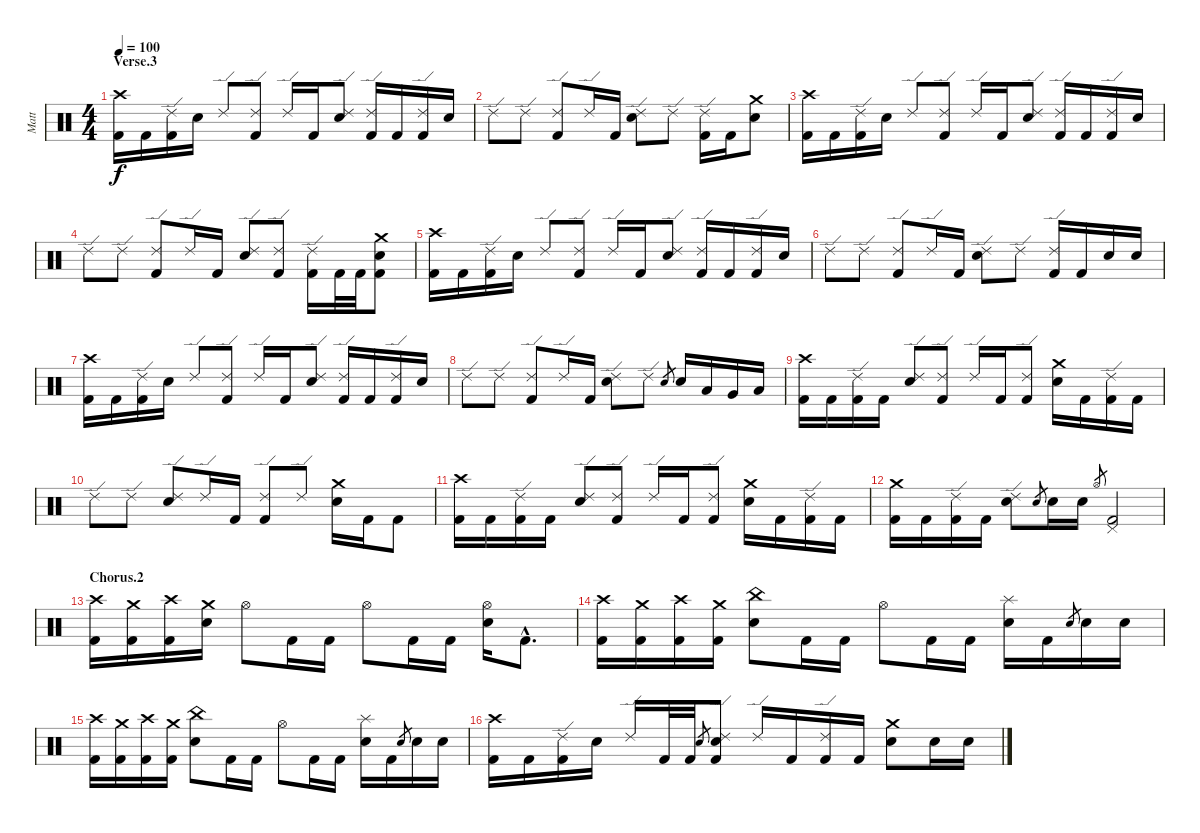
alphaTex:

\track ("Matt" "Matt") {instrument percussion}
\staff {score}
\articulation defaults
\ts (4 4)
\section ("" "Verse.3")
\tempo 100
\clef neutral
\ks c
("Crash high (hit)" "Kick (hit) 2").16{dy f} "Kick (hit) 2".16 ("Ride (edge) 2" "Kick (hit) 2").16 "Electric Snare (hit)".16 "Ride (edge) 2".8 ("Ride (edge) 2" "Kick (hit) 2").8 "Ride (edge) 2".16 "Kick (hit) 2".16 ("Ride (edge) 2" "Electric Snare (hit)").8 ("Ride (edge) 2" "Kick (hit) 2").16 "Kick (hit) 2".16 ("Ride (edge) 2" "Kick (hit) 2").16 "Electric Snare (hit)".16 |
"Ride (edge) 2".8 "Ride (edge) 2".8 ("Ride (edge) 2" "Kick (hit) 2").8 "Ride (edge) 2".16 "Kick (hit) 2".16 ("Ride (edge) 2" "Electric Snare (hit)").8 "Ride (edge) 2".8 ("Ride (edge) 2" "Kick (hit) 2").16 "Kick (hit) 2".16 ("Crash medium (hit)" "Electric Snare (hit)").8 |
("Crash high (hit)" "Kick (hit) 2").16 "Kick (hit) 2".16 ("Ride (edge) 2" "Kick (hit) 2").16 "Electric Snare (hit)".16 "Ride (edge) 2".8 ("Ride (edge) 2" "Kick (hit) 2").8 "Ride (edge) 2".16 "Kick (hit) 2".16 ("Ride (edge) 2" "Electric Snare (hit)").8 ("Ride (edge) 2" "Kick (hit) 2").16 "Kick (hit) 2".16 ("Ride (edge) 2" "Kick (hit) 2").16 "Electric Snare (hit)".16 |
"Ride (edge) 2".8 "Ride (edge) 2".8 ("Ride (edge) 2" "Kick (hit) 2").8 "Ride (edge) 2".16 "Kick (hit) 2".16 ("Ride (edge) 2" "Electric Snare (hit)").8 ("Ride (edge) 2" "Kick (hit) 2").8 ("Ride (edge) 2" "Kick (hit) 2").16 "Kick (hit) 2".32 "Kick (hit) 2".32 ("Crash medium (hit)" "Electric Snare (hit)" "Kick (hit) 2").8 |
("Crash high (hit)" "Kick (hit) 2").16 "Kick (hit) 2".16 ("Ride (edge) 2" "Kick (hit) 2").16 "Electric Snare (hit)".16 "Ride (edge) 2".8 ("Ride (edge) 2" "Kick (hit) 2").8 "Ride (edge) 2".16 "Kick (hit) 2".16 ("Ride (edge) 2" "Electric Snare (hit)").8 ("Ride (edge) 2" "Kick (hit) 2").16 "Kick (hit) 2".16 ("Ride (edge) 2" "Kick (hit) 2").16 "Electric Snare (hit)".16 |
"Ride (edge) 2".8 "Ride (edge) 2".8 ("Ride (edge) 2" "Kick (hit) 2").8 "Ride (edge) 2".16 "Kick (hit) 2".16 ("Ride (edge) 2" "Electric Snare (hit)").8 "Ride (edge) 2".8 ("Ride (edge) 2" "Kick (hit) 2").16 "Kick (hit) 2".16 "Electric Snare (hit)".16 "Electric Snare (hit)".16 |
("Crash high (hit)" "Kick (hit) 2").16 "Kick (hit) 2".16 ("Ride (edge) 2" "Kick (hit) 2").16 "Electric Snare (hit)".16 "Ride (edge) 2".8 ("Ride (edge) 2" "Kick (hit) 2").8 "Ride (edge) 2".16 "Kick (hit) 2".16 ("Ride (edge) 2" "Electric Snare (hit)").8 ("Ride (edge) 2" "Kick (hit) 2").16 "Kick (hit) 2".16 ("Ride (edge) 2" "Kick (hit) 2").16 "Electric Snare (hit)".16 |
"Ride (edge) 2".8 "Ride (edge) 2".8 ("Ride (edge) 2" "Kick (hit) 2").8 "Ride (edge) 2".16 "Kick (hit) 2".16 ("Ride (edge) 2" "Electric Snare (hit)").8 "Ride (edge) 2".8 "Electric Snare (hit)".8{gr} "Electric Snare (hit)".16 "Low Tom (hit)".16 "Very Low Tom (hit)".16 "Low Floor Tom (hit)".16 |
("Crash high (hit)" "Kick (hit) 2").16 "Kick (hit) 2".16 ("Ride (edge) 2" "Kick (hit) 2").16 "Kick (hit) 2".16 ("Ride (edge) 2" "Electric Snare (hit)").8 ("Ride (edge) 2" "Kick (hit) 2").8 "Ride (edge) 2".16 "Kick (hit) 2".16 ("Ride (edge) 2" "Kick (hit) 2").8 ("Crash medium (hit)" "Electric Snare (hit)").16 "Kick (hit) 2".16 ("Ride (edge) 2" "Kick (hit) 2").16 "Kick (hit) 2".16 |
"Ride (edge) 2".8 "Ride (edge) 2".8 ("Ride (edge) 2" "Electric Snare (hit)").8 "Ride (edge) 2".16 "Kick (hit) 2".16 ("Ride (edge) 2" "Kick (hit) 2").8 "Ride (edge) 2".8 ("Crash medium (hit)" "Electric Snare (hit)").16 "Kick (hit) 2".16 "Kick (hit) 2".8 |
("Crash high (hit)" "Kick (hit) 2").16 "Kick (hit) 2".16 ("Ride (edge) 2" "Kick (hit) 2").16 "Kick (hit) 2".16 ("Ride (edge) 2" "Electric Snare (hit)").8 ("Ride (edge) 2" "Kick (hit) 2").8 "Ride (edge) 2".16 "Kick (hit) 2".16 ("Ride (edge) 2" "Kick (hit) 2").8 ("Crash medium (hit)" "Electric Snare (hit)").16 "Kick (hit) 2".16 ("Ride (edge) 2" "Kick (hit) 2").16 "Kick (hit) 2".16 |
("Crash medium (hit)" "Kick (hit) 2").16 "Kick (hit) 2".16 ("Ride (edge) 2" "Kick (hit) 2").16 "Kick (hit) 2".16 ("Ride (edge) 2" "Electric Snare (hit)").8 "Electric Snare (hit)".8{gr} "Electric Snare (hit)".16 "Electric Snare (hit)".16 "Hi-Hat (open)".8{gr} ("Pedal Hi-Hat (hit)" "Kick (hit) 2").2 |
\section ("" "Chorus.2")
("Crash high (hit)" "Kick (hit) 2").16 ("Crash medium (hit)" "Kick (hit) 2").16 ("Crash high (hit)" "Kick (hit) 2").16 ("Crash medium (hit)" "Electric Snare (hit)").16 "Hi-Hat (open)".8 "Kick (hit) 2".16 "Kick (hit) 2".16 "Hi-Hat (open)".8 "Kick (hit) 2".16 "Kick (hit) 2".16 ("Hi-Hat (open)" "Electric Snare (hit)").16 "Kick (hit) 2"{hac}.8{d} |
("Crash high (hit)" "Kick (hit) 2").16 ("Crash medium (hit)" "Kick (hit) 2").16 ("Crash high (hit)" "Kick (hit) 2").16 ("Crash medium (hit)" "Kick (hit) 2").16 ("China (hit)" "Electric Snare (hit)").8 "Kick (hit) 2".16 "Kick (hit) 2".16 "Hi-Hat (open)".8 "Kick (hit) 2".16 "Kick (hit) 2".16 ("Splash (hit)" "Electric Snare (hit)").16 "Kick (hit) 2".16 "Electric Snare (hit)".8{gr} "Electric Snare (hit)".16 "Electric Snare (hit)".16 |
("Crash high (hit)" "Kick (hit) 2").16 ("Crash medium (hit)" "Kick (hit) 2").16 ("Crash high (hit)" "Kick (hit) 2").16 ("Crash medium (hit)" "Kick (hit) 2").16 ("China (hit)" "Electric Snare (hit)").8 "Kick (hit) 2".16 "Kick (hit) 2".16 "Hi-Hat (open)".8 "Kick (hit) 2".16 "Kick (hit) 2".16 ("Splash (hit)" "Electric Snare (hit)").16 "Kick (hit) 2".16 "Electric Snare (hit)".8{gr} "Electric Snare (hit)".16 "Electric Snare (hit)".16 |
("Crash high (hit)" "Kick (hit) 2").16 "Kick (hit) 2".16 ("Ride (edge) 2" "Kick (hit) 2").16 "Electric Snare (hit)".16 "Ride (edge) 2".16 "Kick (hit) 2".32 "Kick (hit) 2".32 "Electric Snare (hit)".8{gr} ("Ride (edge) 2" "Electric Snare (hit)" "Kick (hit) 2").8 "Ride (edge) 2".16 "Kick (hit) 2".16 ("Ride (edge) 2" "Kick (hit) 2").16 "Kick (hit) 2".16 ("Crash medium (hit)" "Electric Snare (hit)").8 "Electric Snare (hit)".16 "Electric Snare (hit)".16
